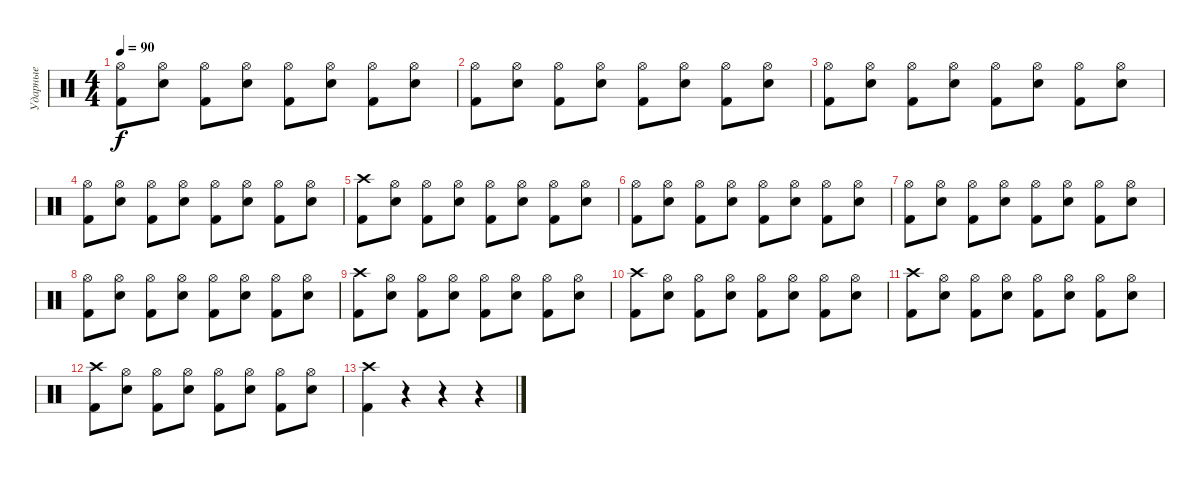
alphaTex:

\track ("Ударные" "Ударные") {instrument percussion}
\staff {score}
\articulation defaults
\ts (4 4)
\tempo 90
\clef neutral
\ks c
("Kick (hit) 2" "Hi-Hat (open)").8{dy f} ("Electric Snare (hit)" "Hi-Hat (open)").8 ("Kick (hit) 2" "Hi-Hat (open)").8 ("Electric Snare (hit)" "Hi-Hat (open)").8 ("Kick (hit) 2" "Hi-Hat (open)").8 ("Electric Snare (hit)" "Hi-Hat (open)").8 ("Kick (hit) 2" "Hi-Hat (open)").8 ("Electric Snare (hit)" "Hi-Hat (open)").8 |
("Kick (hit) 2" "Hi-Hat (open)").8 ("Electric Snare (hit)" "Hi-Hat (open)").8 ("Kick (hit) 2" "Hi-Hat (open)").8 ("Electric Snare (hit)" "Hi-Hat (open)").8 ("Kick (hit) 2" "Hi-Hat (open)").8 ("Electric Snare (hit)" "Hi-Hat (open)").8 ("Kick (hit) 2" "Hi-Hat (open)").8 ("Electric Snare (hit)" "Hi-Hat (open)").8 |
("Kick (hit) 2" "Hi-Hat (open)").8 ("Electric Snare (hit)" "Hi-Hat (open)").8 ("Kick (hit) 2" "Hi-Hat (open)").8 ("Electric Snare (hit)" "Hi-Hat (open)").8 ("Kick (hit) 2" "Hi-Hat (open)").8 ("Electric Snare (hit)" "Hi-Hat (open)").8 ("Kick (hit) 2" "Hi-Hat (open)").8 ("Electric Snare (hit)" "Hi-Hat (open)").8 |
("Kick (hit) 2" "Hi-Hat (open)").8 ("Electric Snare (hit)" "Hi-Hat (open)").8 ("Kick (hit) 2" "Hi-Hat (open)").8 ("Electric Snare (hit)" "Hi-Hat (open)").8 ("Kick (hit) 2" "Hi-Hat (open)").8 ("Electric Snare (hit)" "Hi-Hat (open)").8 ("Kick (hit) 2" "Hi-Hat (open)").8 ("Electric Snare (hit)" "Hi-Hat (open)").8 |
("Kick (hit) 2" "Crash high (hit)").8 ("Electric Snare (hit)" "Hi-Hat (open)").8 ("Kick (hit) 2" "Hi-Hat (open)").8 ("Electric Snare (hit)" "Hi-Hat (open)").8 ("Kick (hit) 2" "Hi-Hat (open)").8 ("Electric Snare (hit)" "Hi-Hat (open)").8 ("Kick (hit) 2" "Hi-Hat (open)").8 ("Electric Snare (hit)" "Hi-Hat (open)").8 |
("Kick (hit) 2" "Hi-Hat (open)").8 ("Electric Snare (hit)" "Hi-Hat (open)").8 ("Kick (hit) 2" "Hi-Hat (open)").8 ("Electric Snare (hit)" "Hi-Hat (open)").8 ("Kick (hit) 2" "Hi-Hat (open)").8 ("Electric Snare (hit)" "Hi-Hat (open)").8 ("Kick (hit) 2" "Hi-Hat (open)").8 ("Electric Snare (hit)" "Hi-Hat (open)").8 |
("Kick (hit) 2" "Hi-Hat (open)").8 ("Electric Snare (hit)" "Hi-Hat (open)").8 ("Kick (hit) 2" "Hi-Hat (open)").8 ("Electric Snare (hit)" "Hi-Hat (open)").8 ("Kick (hit) 2" "Hi-Hat (open)").8 ("Electric Snare (hit)" "Hi-Hat (open)").8 ("Kick (hit) 2" "Hi-Hat (open)").8 ("Electric Snare (hit)" "Hi-Hat (open)").8 |
("Kick (hit) 2" "Hi-Hat (open)").8 ("Electric Snare (hit)" "Hi-Hat (open)").8 ("Kick (hit) 2" "Hi-Hat (open)").8 ("Electric Snare (hit)" "Hi-Hat (open)").8 ("Kick (hit) 2" "Hi-Hat (open)").8 ("Electric Snare (hit)" "Hi-Hat (open)").8 ("Kick (hit) 2" "Hi-Hat (open)").8 ("Electric Snare (hit)" "Hi-Hat (open)").8 |
("Kick (hit) 2" "Crash high (hit)").8 ("Electric Snare (hit)" "Hi-Hat (open)").8 ("Kick (hit) 2" "Hi-Hat (open)").8 ("Electric Snare (hit)" "Hi-Hat (open)").8 ("Kick (hit) 2" "Hi-Hat (open)").8 ("Electric Snare (hit)" "Hi-Hat (open)").8 ("Kick (hit) 2" "Hi-Hat (open)").8 ("Electric Snare (hit)" "Hi-Hat (open)").8 |
("Kick (hit) 2" "Crash high (hit)").8 ("Electric Snare (hit)" "Hi-Hat (open)").8 ("Kick (hit) 2" "Hi-Hat (open)").8 ("Electric Snare (hit)" "Hi-Hat (open)").8 ("Kick (hit) 2" "Hi-Hat (open)").8 ("Electric Snare (hit)" "Hi-Hat (open)").8 ("Kick (hit) 2" "Hi-Hat (open)").8 ("Electric Snare (hit)" "Hi-Hat (open)").8 |
("Kick (hit) 2" "Crash high (hit)").8 ("Electric Snare (hit)" "Hi-Hat (open)").8 ("Kick (hit) 2" "Hi-Hat (open)").8 ("Electric Snare (hit)" "Hi-Hat (open)").8 ("Kick (hit) 2" "Hi-Hat (open)").8 ("Electric Snare (hit)" "Hi-Hat (open)").8 ("Kick (hit) 2" "Hi-Hat (open)").8 ("Electric Snare (hit)" "Hi-Hat (open)").8 |
("Kick (hit) 2" "Crash high (hit)").8 ("Electric Snare (hit)" "Hi-Hat (open)").8 ("Kick (hit) 2" "Hi-Hat (open)").8 ("Electric Snare (hit)" "Hi-Hat (open)").8 ("Kick (hit) 2" "Hi-Hat (open)").8 ("Electric Snare (hit)" "Hi-Hat (open)").8 ("Kick (hit) 2" "Hi-Hat (open)").8 ("Electric Snare (hit)" "Hi-Hat (open)").8 |
("Kick (hit) 2" "Crash high (hit)").4 r.4 r.4 r.4
